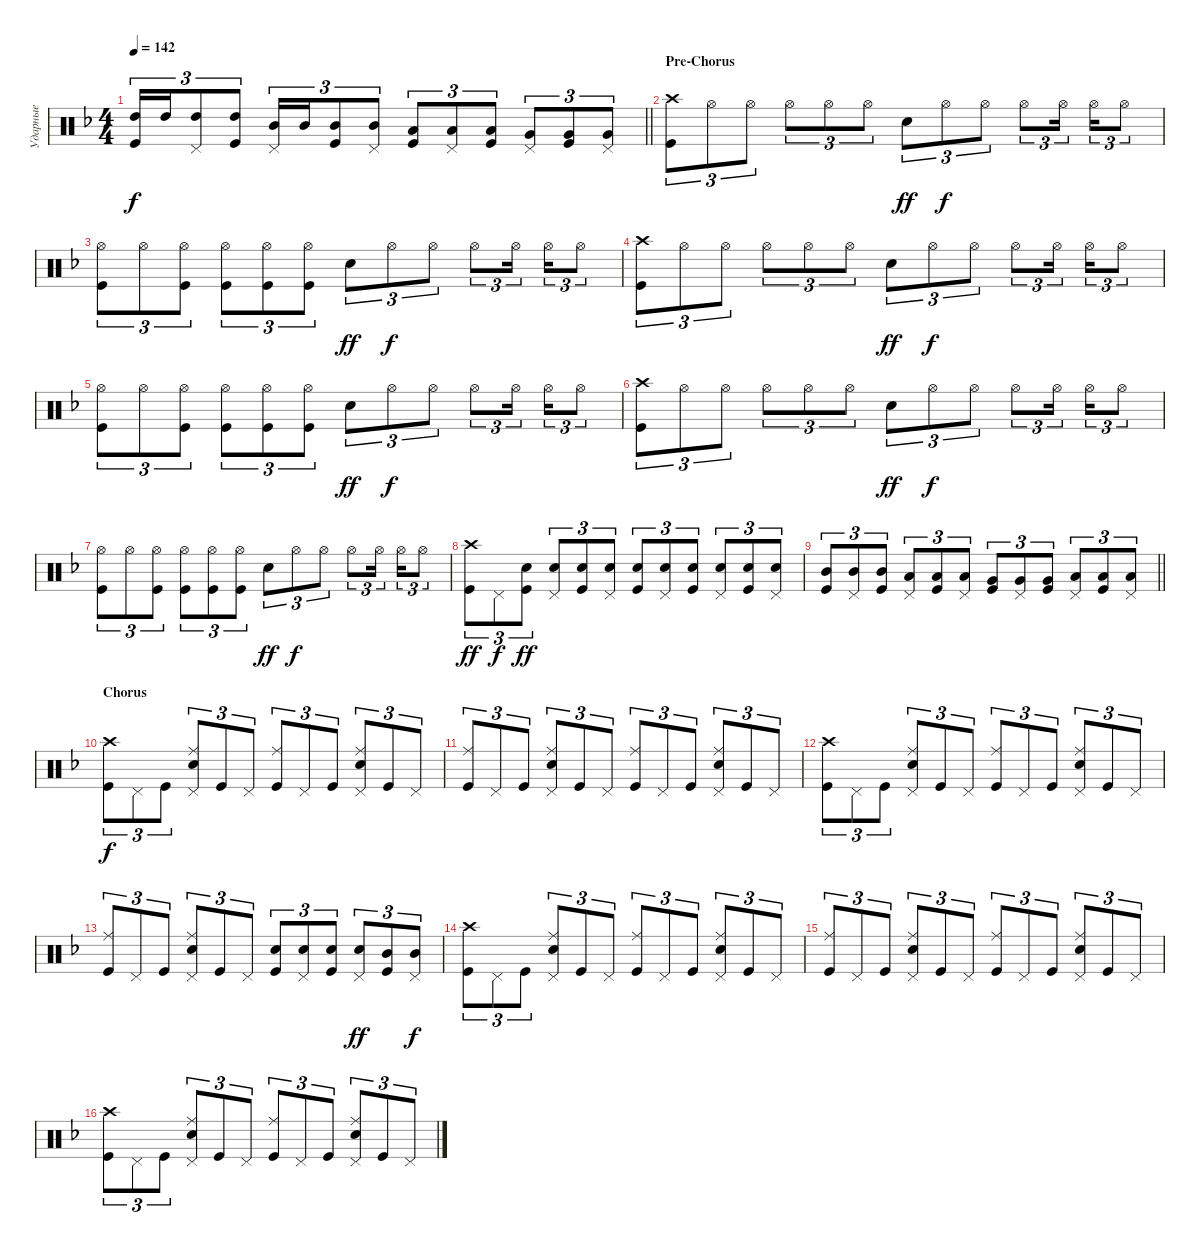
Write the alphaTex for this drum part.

\track ("Ударные" "Ударные") {instrument percussion}
\staff {score}
\articulation defaults
\ts (4 4)
\tempo 142
\clef neutral
\barLineRight lightlight
\ks dminor
("High Tom (hit)" "Kick (hit)").16{tu (3 2) dy f} "High Tom (hit)".16{tu (3 2)} ("High Tom (hit)" "Pedal Hi-Hat (hit)").8{tu (3 2)} ("High Tom (hit)" "Kick (hit)").8{tu (3 2)} ("Mid Tom (hit)" "Pedal Hi-Hat (hit)").16{tu (3 2)} "Mid Tom (hit)".16{tu (3 2)} ("Mid Tom (hit)" "Kick (hit)").8{tu (3 2)} ("Mid Tom (hit)" "Pedal Hi-Hat (hit)").8{tu (3 2)} ("Low Tom (hit)" "Kick (hit)").8{tu (3 2) bd 240} ("Low Tom (hit)" "Pedal Hi-Hat (hit)").8{tu (3 2)} ("Kick (hit)" "Low Tom (hit)").8{tu (3 2) bd 240} ("Very Low Tom (hit)" "Pedal Hi-Hat (hit)").8{tu (3 2)} ("Kick (hit)" "Very Low Tom (hit)").8{tu (3 2) bd 240} ("Pedal Hi-Hat (hit)" "Very Low Tom (hit)").8{tu (3 2)} |
\section ("" "Pre-Chorus")
("Kick (hit)" "Crash high (hit)").8{tu (3 2)} "Hi-Hat (open)".8{tu (3 2)} "Hi-Hat (open)".8{tu (3 2)} "Hi-Hat (open)".8{tu (3 2)} "Hi-Hat (open)".8{tu (3 2)} "Hi-Hat (open)".8{tu (3 2)} "Snare (hit) 2".8{tu (3 2) dy ff} "Hi-Hat (open)".8{tu (3 2) dy f} "Hi-Hat (open)".8{tu (3 2)} "Hi-Hat (open)".8{tu (3 2)} "Hi-Hat (open)".16{tu (3 2) beam splitsecondary} "Hi-Hat (open)".16{tu (3 2)} "Hi-Hat (open)".8{tu (3 2)} |
("Hi-Hat (open)" "Kick (hit)").8{tu (3 2)} "Hi-Hat (open)".8{tu (3 2)} ("Hi-Hat (open)" "Kick (hit)").8{tu (3 2)} ("Hi-Hat (open)" "Kick (hit)").8{tu (3 2)} ("Hi-Hat (open)" "Kick (hit)").8{tu (3 2)} ("Hi-Hat (open)" "Kick (hit)").8{tu (3 2)} "Snare (hit) 2".8{tu (3 2) dy ff} "Hi-Hat (open)".8{tu (3 2) dy f} "Hi-Hat (open)".8{tu (3 2)} "Hi-Hat (open)".8{tu (3 2)} "Hi-Hat (open)".16{tu (3 2) beam splitsecondary} "Hi-Hat (open)".16{tu (3 2)} "Hi-Hat (open)".8{tu (3 2)} |
("Kick (hit)" "Crash high (hit)").8{tu (3 2)} "Hi-Hat (open)".8{tu (3 2)} "Hi-Hat (open)".8{tu (3 2)} "Hi-Hat (open)".8{tu (3 2)} "Hi-Hat (open)".8{tu (3 2)} "Hi-Hat (open)".8{tu (3 2)} "Snare (hit) 2".8{tu (3 2) dy ff} "Hi-Hat (open)".8{tu (3 2) dy f} "Hi-Hat (open)".8{tu (3 2)} "Hi-Hat (open)".8{tu (3 2)} "Hi-Hat (open)".16{tu (3 2) beam splitsecondary} "Hi-Hat (open)".16{tu (3 2)} "Hi-Hat (open)".8{tu (3 2)} |
("Hi-Hat (open)" "Kick (hit)").8{tu (3 2)} "Hi-Hat (open)".8{tu (3 2)} ("Hi-Hat (open)" "Kick (hit)").8{tu (3 2)} ("Hi-Hat (open)" "Kick (hit)").8{tu (3 2)} ("Hi-Hat (open)" "Kick (hit)").8{tu (3 2)} ("Hi-Hat (open)" "Kick (hit)").8{tu (3 2)} "Snare (hit) 2".8{tu (3 2) dy ff} "Hi-Hat (open)".8{tu (3 2) dy f} "Hi-Hat (open)".8{tu (3 2)} "Hi-Hat (open)".8{tu (3 2)} "Hi-Hat (open)".16{tu (3 2) beam splitsecondary} "Hi-Hat (open)".16{tu (3 2)} "Hi-Hat (open)".8{tu (3 2)} |
("Kick (hit)" "Crash high (hit)").8{tu (3 2)} "Hi-Hat (open)".8{tu (3 2)} "Hi-Hat (open)".8{tu (3 2)} "Hi-Hat (open)".8{tu (3 2)} "Hi-Hat (open)".8{tu (3 2)} "Hi-Hat (open)".8{tu (3 2)} "Snare (hit) 2".8{tu (3 2) dy ff} "Hi-Hat (open)".8{tu (3 2) dy f} "Hi-Hat (open)".8{tu (3 2)} "Hi-Hat (open)".8{tu (3 2)} "Hi-Hat (open)".16{tu (3 2) beam splitsecondary} "Hi-Hat (open)".16{tu (3 2)} "Hi-Hat (open)".8{tu (3 2)} |
("Hi-Hat (open)" "Kick (hit)").8{tu (3 2)} "Hi-Hat (open)".8{tu (3 2)} ("Hi-Hat (open)" "Kick (hit)").8{tu (3 2)} ("Hi-Hat (open)" "Kick (hit)").8{tu (3 2)} ("Hi-Hat (open)" "Kick (hit)").8{tu (3 2)} ("Hi-Hat (open)" "Kick (hit)").8{tu (3 2)} "Snare (hit) 2".8{tu (3 2) dy ff} "Hi-Hat (open)".8{tu (3 2) dy f} "Hi-Hat (open)".8{tu (3 2)} "Hi-Hat (open)".8{tu (3 2)} "Hi-Hat (open)".16{tu (3 2) beam splitsecondary} "Hi-Hat (open)".16{tu (3 2)} "Hi-Hat (open)".8{tu (3 2)} |
("Kick (hit)" "Crash high (hit)").8{tu (3 2) dy ff} "Pedal Hi-Hat (hit)".8{tu (3 2) dy f} ("Snare (hit) 2" "Kick (hit)").8{tu (3 2) dy ff} ("Snare (hit) 2" "Pedal Hi-Hat (hit)").8{tu (3 2)} ("Kick (hit)" "Snare (hit) 2").8{tu (3 2)} ("Snare (hit) 2" "Pedal Hi-Hat (hit)").8{tu (3 2)} ("Kick (hit)" "Snare (hit) 2").8{tu (3 2)} ("Snare (hit) 2" "Pedal Hi-Hat (hit)").8{tu (3 2)} ("Snare (hit) 2" "Kick (hit)").8{tu (3 2)} ("Snare (hit) 2" "Pedal Hi-Hat (hit)").8{tu (3 2)} ("Snare (hit) 2" "Kick (hit)").8{tu (3 2)} ("Snare (hit) 2" "Pedal Hi-Hat (hit)").8{tu (3 2)} |
\barLineRight lightlight
("Mid Tom (hit)" "Kick (hit)").8{tu (3 2) bd 240} ("Mid Tom (hit)" "Pedal Hi-Hat (hit)").8{tu (3 2)} ("Mid Tom (hit)" "Kick (hit)").8{tu (3 2)} ("Low Tom (hit)" "Pedal Hi-Hat (hit)").8{tu (3 2) bd 240} ("Low Tom (hit)" "Kick (hit)").8{tu (3 2)} ("Low Tom (hit)" "Pedal Hi-Hat (hit)").8{tu (3 2)} ("Very Low Tom (hit)" "Kick (hit)").8{tu (3 2) bd 240} ("Very Low Tom (hit)" "Pedal Hi-Hat (hit)").8{tu (3 2)} ("Very Low Tom (hit)" "Kick (hit)").8{tu (3 2)} ("Low Floor Tom (hit)" "Pedal Hi-Hat (hit)").8{tu (3 2) bd 240} ("Low Floor Tom (hit)" "Kick (hit)").8{tu (3 2)} ("Low Floor Tom (hit)" "Pedal Hi-Hat (hit)").8{tu (3 2)} |
\section ("" "Chorus")
("Kick (hit)" "Crash high (hit)").8{tu (3 2) dy f} "Pedal Hi-Hat (hit)".8{tu (3 2)} "Kick (hit)".8{tu (3 2)} ("Snare (hit) 2" "Ride (middle)" "Pedal Hi-Hat (hit)").8{tu (3 2)} "Kick (hit)".8{tu (3 2)} "Pedal Hi-Hat (hit)".8{tu (3 2)} ("Kick (hit)" "Ride (middle)").8{tu (3 2)} "Pedal Hi-Hat (hit)".8{tu (3 2)} "Kick (hit)".8{tu (3 2)} ("Snare (hit) 2" "Ride (middle)" "Pedal Hi-Hat (hit)").8{tu (3 2)} "Kick (hit)".8{tu (3 2)} "Pedal Hi-Hat (hit)".8{tu (3 2)} |
("Kick (hit)" "Ride (middle)").8{tu (3 2)} "Pedal Hi-Hat (hit)".8{tu (3 2)} "Kick (hit)".8{tu (3 2)} ("Snare (hit) 2" "Ride (middle)" "Pedal Hi-Hat (hit)").8{tu (3 2)} "Kick (hit)".8{tu (3 2)} "Pedal Hi-Hat (hit)".8{tu (3 2)} ("Kick (hit)" "Ride (middle)").8{tu (3 2)} "Pedal Hi-Hat (hit)".8{tu (3 2)} "Kick (hit)".8{tu (3 2)} ("Snare (hit) 2" "Ride (middle)" "Pedal Hi-Hat (hit)").8{tu (3 2)} "Kick (hit)".8{tu (3 2)} "Pedal Hi-Hat (hit)".8{tu (3 2)} |
("Kick (hit)" "Crash high (hit)").8{tu (3 2)} "Pedal Hi-Hat (hit)".8{tu (3 2)} "Kick (hit)".8{tu (3 2)} ("Snare (hit) 2" "Ride (middle)" "Pedal Hi-Hat (hit)").8{tu (3 2)} "Kick (hit)".8{tu (3 2)} "Pedal Hi-Hat (hit)".8{tu (3 2)} ("Kick (hit)" "Ride (middle)").8{tu (3 2)} "Pedal Hi-Hat (hit)".8{tu (3 2)} "Kick (hit)".8{tu (3 2)} ("Snare (hit) 2" "Ride (middle)" "Pedal Hi-Hat (hit)").8{tu (3 2)} "Kick (hit)".8{tu (3 2)} "Pedal Hi-Hat (hit)".8{tu (3 2)} |
("Kick (hit)" "Ride (middle)").8{tu (3 2)} "Pedal Hi-Hat (hit)".8{tu (3 2)} "Kick (hit)".8{tu (3 2)} ("Snare (hit) 2" "Ride (middle)" "Pedal Hi-Hat (hit)").8{tu (3 2)} "Kick (hit)".8{tu (3 2)} "Pedal Hi-Hat (hit)".8{tu (3 2)} ("Kick (hit)" "Snare (hit) 2").8{tu (3 2)} ("Snare (hit) 2" "Pedal Hi-Hat (hit)").8{tu (3 2)} ("Snare (hit) 2" "Kick (hit)").8{tu (3 2)} ("Snare (hit) 2" "Pedal Hi-Hat (hit)").8{tu (3 2) dy ff} ("Mid Tom (hit)" "Kick (hit)").8{tu (3 2)} ("Mid Tom (hit)" "Pedal Hi-Hat (hit)").8{tu (3 2) dy f} |
("Kick (hit)" "Crash high (hit)").8{tu (3 2)} "Pedal Hi-Hat (hit)".8{tu (3 2)} "Kick (hit)".8{tu (3 2)} ("Snare (hit) 2" "Ride (middle)" "Pedal Hi-Hat (hit)").8{tu (3 2)} "Kick (hit)".8{tu (3 2)} "Pedal Hi-Hat (hit)".8{tu (3 2)} ("Kick (hit)" "Ride (middle)").8{tu (3 2)} "Pedal Hi-Hat (hit)".8{tu (3 2)} "Kick (hit)".8{tu (3 2)} ("Snare (hit) 2" "Ride (middle)" "Pedal Hi-Hat (hit)").8{tu (3 2)} "Kick (hit)".8{tu (3 2)} "Pedal Hi-Hat (hit)".8{tu (3 2)} |
("Kick (hit)" "Ride (middle)").8{tu (3 2)} "Pedal Hi-Hat (hit)".8{tu (3 2)} "Kick (hit)".8{tu (3 2)} ("Snare (hit) 2" "Ride (middle)" "Pedal Hi-Hat (hit)").8{tu (3 2)} "Kick (hit)".8{tu (3 2)} "Pedal Hi-Hat (hit)".8{tu (3 2)} ("Kick (hit)" "Ride (middle)").8{tu (3 2)} "Pedal Hi-Hat (hit)".8{tu (3 2)} "Kick (hit)".8{tu (3 2)} ("Snare (hit) 2" "Ride (middle)" "Pedal Hi-Hat (hit)").8{tu (3 2)} "Kick (hit)".8{tu (3 2)} "Pedal Hi-Hat (hit)".8{tu (3 2)} |
("Kick (hit)" "Crash high (hit)").8{tu (3 2)} "Pedal Hi-Hat (hit)".8{tu (3 2)} "Kick (hit)".8{tu (3 2)} ("Snare (hit) 2" "Ride (middle)" "Pedal Hi-Hat (hit)").8{tu (3 2)} "Kick (hit)".8{tu (3 2)} "Pedal Hi-Hat (hit)".8{tu (3 2)} ("Kick (hit)" "Ride (middle)").8{tu (3 2)} "Pedal Hi-Hat (hit)".8{tu (3 2)} "Kick (hit)".8{tu (3 2)} ("Snare (hit) 2" "Ride (middle)" "Pedal Hi-Hat (hit)").8{tu (3 2)} "Kick (hit)".8{tu (3 2)} "Pedal Hi-Hat (hit)".8{tu (3 2)}
